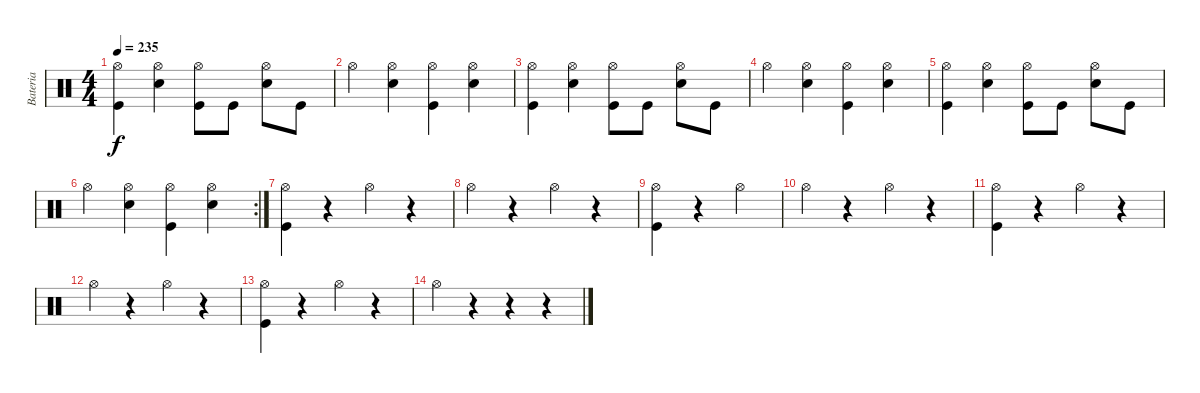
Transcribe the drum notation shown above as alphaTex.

\track ("Bateria" "Bateria") {instrument percussion}
\staff {score}
\articulation defaults
\ts (4 4)
\tempo 235
\clef neutral
\ks c
("Hi-Hat (open)" "Kick (hit)").4{dy f} ("Hi-Hat (open)" "Electric Snare (hit)").4 ("Hi-Hat (open)" "Kick (hit)").8 "Kick (hit)".8 ("Hi-Hat (open)" "Electric Snare (hit)").8 "Kick (hit)".8 |
"Hi-Hat (open)".4 ("Hi-Hat (open)" "Electric Snare (hit)").4 ("Hi-Hat (open)" "Kick (hit)").4 ("Hi-Hat (open)" "Electric Snare (hit)").4 |
("Hi-Hat (open)" "Kick (hit)").4 ("Hi-Hat (open)" "Electric Snare (hit)").4 ("Hi-Hat (open)" "Kick (hit)").8 "Kick (hit)".8 ("Hi-Hat (open)" "Electric Snare (hit)").8 "Kick (hit)".8 |
"Hi-Hat (open)".4 ("Hi-Hat (open)" "Electric Snare (hit)").4 ("Hi-Hat (open)" "Kick (hit)").4 ("Hi-Hat (open)" "Electric Snare (hit)").4 |
("Hi-Hat (open)" "Kick (hit)").4 ("Hi-Hat (open)" "Electric Snare (hit)").4 ("Hi-Hat (open)" "Kick (hit)").8 "Kick (hit)".8 ("Hi-Hat (open)" "Electric Snare (hit)").8 "Kick (hit)".8 |
\rc 2 "Hi-Hat (open)".4
("Hi-Hat (open)" "Electric Snare (hit)").4 ("Hi-Hat (open)" "Kick (hit)").4 ("Hi-Hat (open)" "Electric Snare (hit)").4 |
("Hi-Hat (open)" "Kick (hit)").4 r.4 "Hi-Hat (open)".4 r.4 |
"Hi-Hat (open)".4 r.4 "Hi-Hat (open)".4 r.4 |
("Hi-Hat (open)" "Kick (hit)").4 r.4 "Hi-Hat (open)".4 |
"Hi-Hat (open)".4 r.4 "Hi-Hat (open)".4 r.4 |
("Hi-Hat (open)" "Kick (hit)").4 r.4 "Hi-Hat (open)".4 r.4 |
"Hi-Hat (open)".4 r.4 "Hi-Hat (open)".4 r.4 |
("Hi-Hat (open)" "Kick (hit)").4 r.4 "Hi-Hat (open)".4 r.4 |
"Hi-Hat (open)".4 r.4 r.4 r.4
